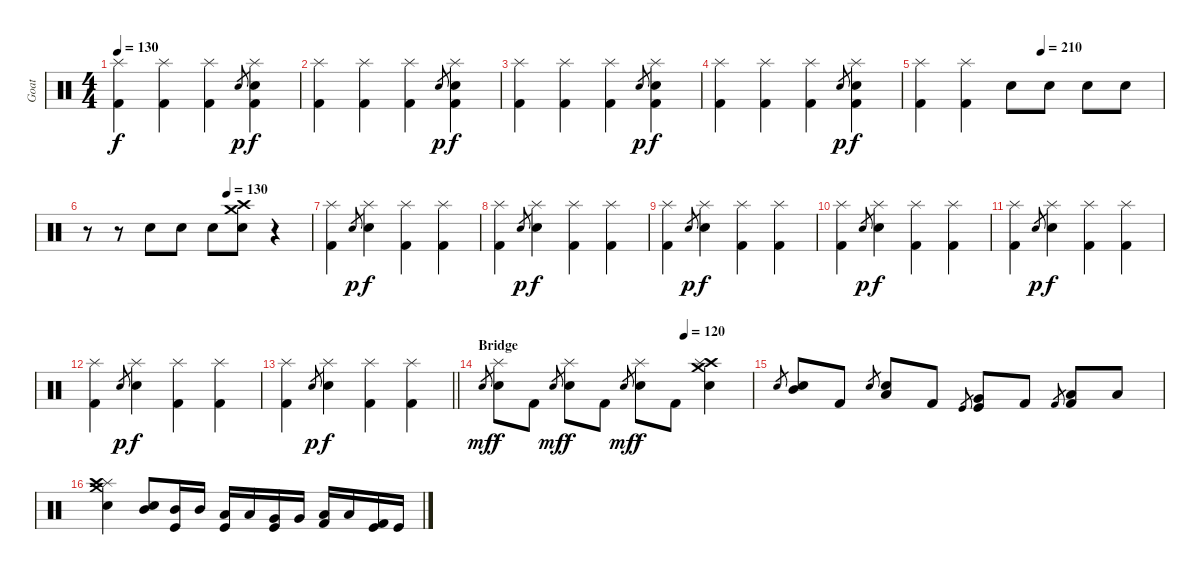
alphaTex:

\track ("Goat" "Goat") {instrument percussion}
\staff {score}
\articulation defaults
\ts (4 4)
\tempo 130
\clef neutral
\ks c
("Splash (hit)" "Kick (hit) 2").4{dy f} ("Splash (hit)" "Kick (hit) 2").4 ("Splash (hit)" "Kick (hit) 2").4 "Snare (hit) 2".8{gr dy p} ("Splash (hit)" "Snare (hit) 2" "Kick (hit) 2").4{dy f} |
("Splash (hit)" "Kick (hit) 2").4 ("Splash (hit)" "Kick (hit) 2").4 ("Splash (hit)" "Kick (hit) 2").4 "Snare (hit) 2".8{gr dy p} ("Splash (hit)" "Snare (hit) 2" "Kick (hit) 2").4{dy f} |
("Splash (hit)" "Kick (hit) 2").4 ("Splash (hit)" "Kick (hit) 2").4 ("Splash (hit)" "Kick (hit) 2").4 "Snare (hit) 2".8{gr dy p} ("Splash (hit)" "Snare (hit) 2" "Kick (hit) 2").4{dy f} |
("Splash (hit)" "Kick (hit) 2").4 ("Splash (hit)" "Kick (hit) 2").4 ("Splash (hit)" "Kick (hit) 2").4 "Snare (hit) 2".8{gr dy p} ("Splash (hit)" "Snare (hit) 2" "Kick (hit) 2").4{dy f} |
\tempo (210 0.5)
("Splash (hit)" "Kick (hit) 2").4 ("Splash (hit)" "Kick (hit) 2").4 "Snare (hit) 2".8 "Snare (hit) 2".8 "Snare (hit) 2".8 "Snare (hit) 2".8 |
\tempo (130 0.625)
r.8 r.8 "Snare (hit) 2".8 "Snare (hit) 2".8 "Snare (hit) 2".8 ("Crash high (hit)" "Crash medium (hit)" "Snare (hit) 2").8 r.4 |
("Splash (hit)" "Kick (hit) 2").4 "Snare (hit) 2".8{gr dy p} ("Splash (hit)" "Snare (hit) 2").4{dy f} ("Splash (hit)" "Kick (hit) 2").4 ("Splash (hit)" "Kick (hit) 2").4 |
("Splash (hit)" "Kick (hit) 2").4 "Snare (hit) 2".8{gr dy p} ("Splash (hit)" "Snare (hit) 2").4{dy f} ("Splash (hit)" "Kick (hit) 2").4 ("Splash (hit)" "Kick (hit) 2").4 |
("Splash (hit)" "Kick (hit) 2").4 "Snare (hit) 2".8{gr dy p} ("Splash (hit)" "Snare (hit) 2").4{dy f} ("Splash (hit)" "Kick (hit) 2").4 ("Splash (hit)" "Kick (hit) 2").4 |
("Splash (hit)" "Kick (hit) 2").4 "Snare (hit) 2".8{gr dy p} ("Splash (hit)" "Snare (hit) 2").4{dy f} ("Splash (hit)" "Kick (hit) 2").4 ("Splash (hit)" "Kick (hit) 2").4 |
("Splash (hit)" "Kick (hit) 2").4 "Snare (hit) 2".8{gr dy p} ("Splash (hit)" "Snare (hit) 2").4{dy f} ("Splash (hit)" "Kick (hit) 2").4 ("Splash (hit)" "Kick (hit) 2").4 |
("Splash (hit)" "Kick (hit) 2").4 "Snare (hit) 2".8{gr dy p} ("Splash (hit)" "Snare (hit) 2").4{dy f} ("Splash (hit)" "Kick (hit) 2").4 ("Splash (hit)" "Kick (hit) 2").4 |
\barLineRight lightlight
("Splash (hit)" "Kick (hit) 2").4 "Snare (hit) 2".8{gr dy p} ("Splash (hit)" "Snare (hit) 2").4{dy f} ("Splash (hit)" "Kick (hit) 2").4 ("Splash (hit)" "Kick (hit) 2").4 |
\section ("" "Bridge")
\tempo (120 0.75)
"Snare (hit) 2".8{gr dy mf} ("Splash (hit)" "Snare (hit) 2").8{dy f} "Kick (hit) 2".8 "Snare (hit) 2".8{gr dy mf} ("Splash (hit)" "Snare (hit) 2").8{dy f} "Kick (hit) 2".8 "Snare (hit) 2".8{gr dy mf} ("Splash (hit)" "Snare (hit) 2").8{dy f} "Kick (hit) 2".8 ("Crash high (hit)" "Splash (hit)" "Crash medium (hit)" "Snare (hit) 2").4 |
"Snare (hit) 2".8{gr} ("Snare (hit) 2" "Mid Tom (hit)").8 "Kick (hit) 2".8 "Snare (hit) 2".8{gr} ("Snare (hit) 2" "Low Tom (hit)").8 "Kick (hit) 2".8 "Kick (hit)".8{gr} ("Kick (hit)" "Very Low Tom (hit)").8 "Kick (hit) 2".8 "Kick (hit) 2".8{gr} ("Kick (hit) 2" "Low Floor Tom (hit)").8 "Low Floor Tom (hit)".8 |
("Splash (hit)" "Crash medium (hit)" "Crash high (hit)" "Snare (hit) 2").4 ("Snare (hit) 2" "Mid Tom (hit)").8 ("Kick (hit)" "Mid Tom (hit)").16 "Mid Tom (hit)".16 ("Kick (hit)" "Low Tom (hit)").16 "Low Tom (hit)".16 ("Kick (hit)" "Very Low Tom (hit)").16 "Very Low Tom (hit)".16 ("Kick (hit) 2" "Low Floor Tom (hit)").16 "Low Floor Tom (hit)".16 ("Kick (hit) 2" "Kick (hit)").16 "Kick (hit)".16
